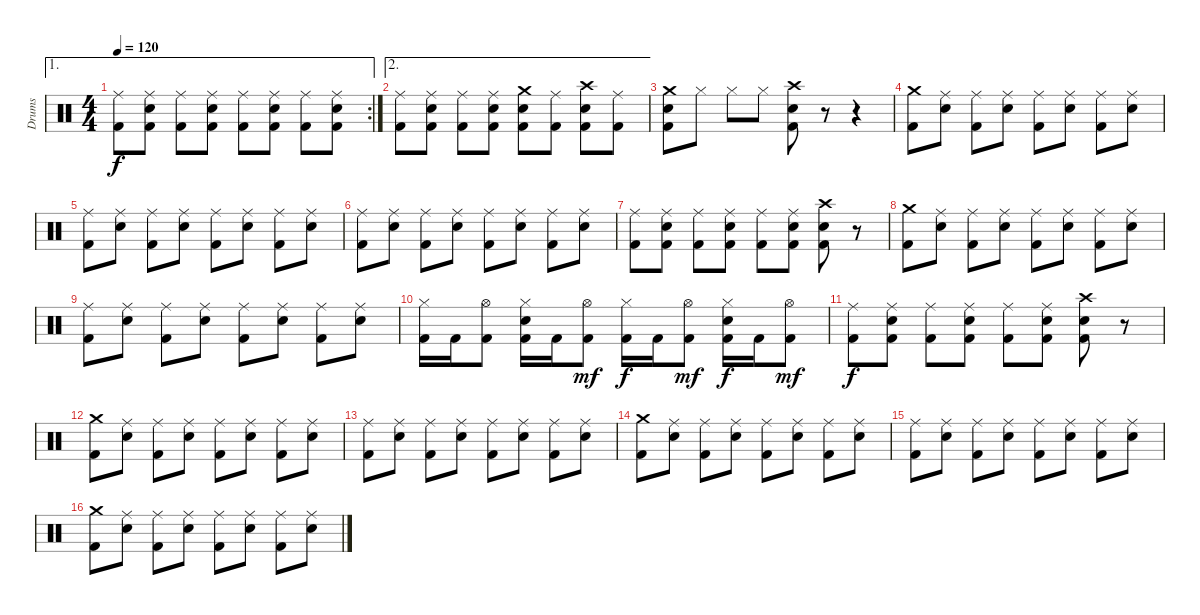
\track ("Drums" "Drums") {instrument percussion}
\staff {score}
\articulation defaults
\ae 1
\rc 2
\ts (4 4)
\tempo 120
\clef neutral
\ks c
("Ride (middle)" "Kick (hit) 2").8{dy f} ("Ride (middle)" "Snare (hit) 2" "Kick (hit) 2").8 ("Ride (middle)" "Kick (hit) 2").8 ("Ride (middle)" "Snare (hit) 2" "Kick (hit) 2").8 ("Ride (middle)" "Kick (hit) 2").8 ("Ride (middle)" "Snare (hit) 2" "Kick (hit) 2").8 ("Ride (middle)" "Kick (hit) 2").8 ("Ride (middle)" "Snare (hit) 2" "Kick (hit) 2").8 |
\ae 2
("Ride (middle)" "Kick (hit) 2").8 ("Ride (middle)" "Snare (hit) 2" "Kick (hit) 2").8 ("Ride (middle)" "Kick (hit) 2").8 ("Ride (middle)" "Snare (hit) 2" "Kick (hit) 2").8 ("Crash medium (hit)" "Snare (hit) 2" "Kick (hit) 2").8 ("Ride (middle)" "Kick (hit) 2").8 ("Crash high (hit)" "Snare (hit) 2" "Kick (hit) 2").8 ("Ride (middle)" "Kick (hit) 2").8 |
("Crash medium (hit)" "Snare (hit) 2" "Kick (hit) 2").8 "Hi-Hat (closed)".8 "Hi-Hat (closed)".8 "Hi-Hat (closed)".8 ("Crash high (hit)" "Snare (hit) 2" "Kick (hit) 2").8 r.8 r.4 |
("Crash medium (hit)" "Kick (hit) 2").8 ("Ride (middle)" "Snare (hit) 2").8 ("Ride (middle)" "Kick (hit) 2").8 ("Ride (middle)" "Snare (hit) 2").8 ("Ride (middle)" "Kick (hit) 2").8 ("Ride (middle)" "Snare (hit) 2").8 ("Ride (middle)" "Kick (hit) 2").8 ("Ride (middle)" "Snare (hit) 2").8 |
("Ride (middle)" "Kick (hit) 2").8 ("Ride (middle)" "Snare (hit) 2").8 ("Ride (middle)" "Kick (hit) 2").8 ("Ride (middle)" "Snare (hit) 2").8 ("Ride (middle)" "Kick (hit) 2").8 ("Ride (middle)" "Snare (hit) 2").8 ("Ride (middle)" "Kick (hit) 2").8 ("Ride (middle)" "Snare (hit) 2").8 |
("Ride (middle)" "Kick (hit) 2").8 ("Ride (middle)" "Snare (hit) 2").8 ("Ride (middle)" "Kick (hit) 2").8 ("Ride (middle)" "Snare (hit) 2").8 ("Ride (middle)" "Kick (hit) 2").8 ("Ride (middle)" "Snare (hit) 2").8 ("Ride (middle)" "Kick (hit) 2").8 ("Ride (middle)" "Snare (hit) 2").8 |
("Ride (middle)" "Kick (hit) 2").8 ("Ride (middle)" "Snare (hit) 2" "Kick (hit) 2").8 ("Ride (middle)" "Kick (hit) 2").8 ("Ride (middle)" "Snare (hit) 2" "Kick (hit) 2").8 ("Ride (middle)" "Kick (hit) 2").8 ("Ride (middle)" "Snare (hit) 2" "Kick (hit) 2").8 ("Crash high (hit)" "Snare (hit) 2" "Kick (hit) 2").8 r.8 |
("Crash medium (hit)" "Kick (hit) 2").8 ("Ride (middle)" "Snare (hit) 2").8 ("Ride (middle)" "Kick (hit) 2").8 ("Ride (middle)" "Snare (hit) 2").8 ("Ride (middle)" "Kick (hit) 2").8 ("Ride (middle)" "Snare (hit) 2").8 ("Ride (middle)" "Kick (hit) 2").8 ("Ride (middle)" "Snare (hit) 2").8 |
("Ride (middle)" "Kick (hit) 2").8 ("Ride (middle)" "Snare (hit) 2").8 ("Ride (middle)" "Kick (hit) 2").8 ("Ride (middle)" "Snare (hit) 2").8 ("Ride (middle)" "Kick (hit) 2").8 ("Ride (middle)" "Snare (hit) 2").8 ("Ride (middle)" "Kick (hit) 2").8 ("Ride (middle)" "Snare (hit) 2").8 |
("Hi-Hat (closed)" "Kick (hit) 2").16 "Kick (hit) 2".16 ("Hi-Hat (open)" "Kick (hit) 2").8 ("Hi-Hat (closed)" "Snare (hit) 2" "Kick (hit) 2").16 "Kick (hit) 2".16 ("Hi-Hat (open)" "Kick (hit) 2").8{dy mf} ("Hi-Hat (closed)" "Kick (hit) 2").16{dy f} "Kick (hit) 2".16 ("Hi-Hat (open)" "Kick (hit) 2").8{dy mf} ("Hi-Hat (closed)" "Snare (hit) 2" "Kick (hit) 2").16{dy f} "Kick (hit) 2".16 ("Hi-Hat (open)" "Kick (hit) 2").8{dy mf} |
("Ride (middle)" "Kick (hit) 2").8{dy f} ("Ride (middle)" "Snare (hit) 2" "Kick (hit) 2").8 ("Ride (middle)" "Kick (hit) 2").8 ("Ride (middle)" "Snare (hit) 2" "Kick (hit) 2").8 ("Ride (middle)" "Kick (hit) 2").8 ("Ride (middle)" "Snare (hit) 2" "Kick (hit) 2").8 ("Crash high (hit)" "Snare (hit) 2" "Kick (hit) 2").8 r.8 |
("Crash medium (hit)" "Kick (hit) 2").8 ("Ride (middle)" "Snare (hit) 2").8 ("Ride (middle)" "Kick (hit) 2").8 ("Ride (middle)" "Snare (hit) 2").8 ("Ride (middle)" "Kick (hit) 2").8 ("Ride (middle)" "Snare (hit) 2").8 ("Ride (middle)" "Kick (hit) 2").8 ("Ride (middle)" "Snare (hit) 2").8 |
("Ride (middle)" "Kick (hit) 2").8 ("Ride (middle)" "Snare (hit) 2").8 ("Ride (middle)" "Kick (hit) 2").8 ("Ride (middle)" "Snare (hit) 2").8 ("Ride (middle)" "Kick (hit) 2").8 ("Ride (middle)" "Snare (hit) 2").8 ("Ride (middle)" "Kick (hit) 2").8 ("Ride (middle)" "Snare (hit) 2").8 |
("Crash medium (hit)" "Kick (hit) 2").8 ("Ride (middle)" "Snare (hit) 2").8 ("Ride (middle)" "Kick (hit) 2").8 ("Ride (middle)" "Snare (hit) 2").8 ("Ride (middle)" "Kick (hit) 2").8 ("Ride (middle)" "Snare (hit) 2").8 ("Ride (middle)" "Kick (hit) 2").8 ("Ride (middle)" "Snare (hit) 2").8 |
("Ride (middle)" "Kick (hit) 2").8 ("Ride (middle)" "Snare (hit) 2").8 ("Ride (middle)" "Kick (hit) 2").8 ("Ride (middle)" "Snare (hit) 2").8 ("Ride (middle)" "Kick (hit) 2").8 ("Ride (middle)" "Snare (hit) 2").8 ("Ride (middle)" "Kick (hit) 2").8 ("Ride (middle)" "Snare (hit) 2").8 |
("Crash medium (hit)" "Kick (hit) 2").8 ("Ride (middle)" "Snare (hit) 2").8 ("Ride (middle)" "Kick (hit) 2").8 ("Ride (middle)" "Snare (hit) 2").8 ("Ride (middle)" "Kick (hit) 2").8 ("Ride (middle)" "Snare (hit) 2").8 ("Ride (middle)" "Kick (hit) 2").8 ("Ride (middle)" "Snare (hit) 2").8
